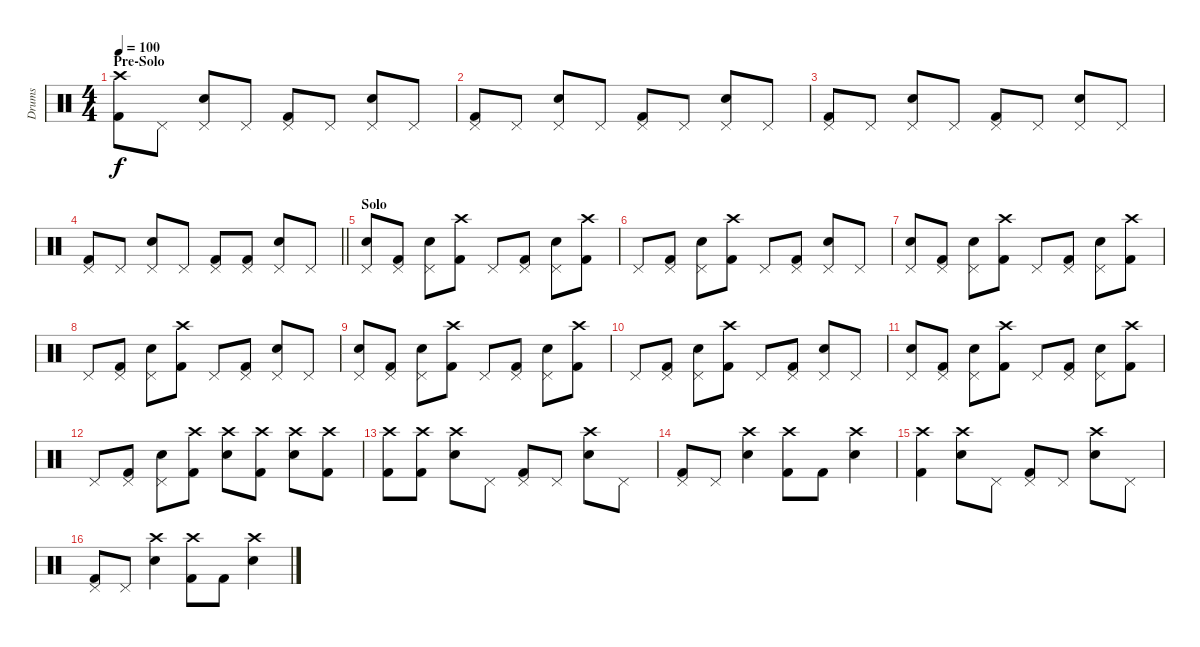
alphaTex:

\track ("Drums" "Drums") {instrument percussion}
\staff {score}
\articulation defaults
\ts (4 4)
\section ("" "Pre-Solo")
\tempo 100
\clef neutral
\ks c
("Crash high (hit)" "Kick (hit) 2").8{dy f} "Pedal Hi-Hat (hit)".8 ("Pedal Hi-Hat (hit)" "Electric Snare (hit)").8 "Pedal Hi-Hat (hit)".8 ("Pedal Hi-Hat (hit)" "Kick (hit) 2").8 "Pedal Hi-Hat (hit)".8 ("Pedal Hi-Hat (hit)" "Electric Snare (hit)").8 "Pedal Hi-Hat (hit)".8 |
("Pedal Hi-Hat (hit)" "Kick (hit) 2").8 "Pedal Hi-Hat (hit)".8 ("Pedal Hi-Hat (hit)" "Electric Snare (hit)").8 "Pedal Hi-Hat (hit)".8 ("Pedal Hi-Hat (hit)" "Kick (hit) 2").8 "Pedal Hi-Hat (hit)".8 ("Pedal Hi-Hat (hit)" "Electric Snare (hit)").8 "Pedal Hi-Hat (hit)".8 |
("Pedal Hi-Hat (hit)" "Kick (hit) 2").8 "Pedal Hi-Hat (hit)".8 ("Pedal Hi-Hat (hit)" "Electric Snare (hit)").8 "Pedal Hi-Hat (hit)".8 ("Pedal Hi-Hat (hit)" "Kick (hit) 2").8 "Pedal Hi-Hat (hit)".8 ("Pedal Hi-Hat (hit)" "Electric Snare (hit)").8 "Pedal Hi-Hat (hit)".8 |
\barLineRight lightlight
("Pedal Hi-Hat (hit)" "Kick (hit) 2").8 "Pedal Hi-Hat (hit)".8 ("Pedal Hi-Hat (hit)" "Electric Snare (hit)").8 "Pedal Hi-Hat (hit)".8 ("Pedal Hi-Hat (hit)" "Kick (hit) 2").8 ("Pedal Hi-Hat (hit)" "Kick (hit) 2").8 ("Pedal Hi-Hat (hit)" "Electric Snare (hit)").8 "Pedal Hi-Hat (hit)".8 |
\section ("" "Solo")
("Pedal Hi-Hat (hit)" "Electric Snare (hit)").8 ("Pedal Hi-Hat (hit)" "Kick (hit) 2").8 ("Pedal Hi-Hat (hit)" "Electric Snare (hit)").8 ("Crash high (hit)" "Kick (hit) 2").8 "Pedal Hi-Hat (hit)".8 ("Pedal Hi-Hat (hit)" "Kick (hit) 2").8 ("Pedal Hi-Hat (hit)" "Electric Snare (hit)").8 ("Crash high (hit)" "Kick (hit) 2").8 |
"Pedal Hi-Hat (hit)".8 ("Pedal Hi-Hat (hit)" "Kick (hit) 2").8 ("Pedal Hi-Hat (hit)" "Electric Snare (hit)").8 ("Crash high (hit)" "Kick (hit) 2").8 "Pedal Hi-Hat (hit)".8 ("Pedal Hi-Hat (hit)" "Kick (hit) 2").8 ("Pedal Hi-Hat (hit)" "Electric Snare (hit)").8 "Pedal Hi-Hat (hit)".8 |
("Pedal Hi-Hat (hit)" "Electric Snare (hit)").8 ("Pedal Hi-Hat (hit)" "Kick (hit) 2").8 ("Pedal Hi-Hat (hit)" "Electric Snare (hit)").8 ("Crash high (hit)" "Kick (hit) 2").8 "Pedal Hi-Hat (hit)".8 ("Pedal Hi-Hat (hit)" "Kick (hit) 2").8 ("Pedal Hi-Hat (hit)" "Electric Snare (hit)").8 ("Crash high (hit)" "Kick (hit) 2").8 |
"Pedal Hi-Hat (hit)".8 ("Pedal Hi-Hat (hit)" "Kick (hit) 2").8 ("Pedal Hi-Hat (hit)" "Electric Snare (hit)").8 ("Crash high (hit)" "Kick (hit) 2").8 "Pedal Hi-Hat (hit)".8 ("Pedal Hi-Hat (hit)" "Kick (hit) 2").8 ("Pedal Hi-Hat (hit)" "Electric Snare (hit)").8 "Pedal Hi-Hat (hit)".8 |
("Pedal Hi-Hat (hit)" "Electric Snare (hit)").8 ("Pedal Hi-Hat (hit)" "Kick (hit) 2").8 ("Pedal Hi-Hat (hit)" "Electric Snare (hit)").8 ("Crash high (hit)" "Kick (hit) 2").8 "Pedal Hi-Hat (hit)".8 ("Pedal Hi-Hat (hit)" "Kick (hit) 2").8 ("Pedal Hi-Hat (hit)" "Electric Snare (hit)").8 ("Crash high (hit)" "Kick (hit) 2").8 |
"Pedal Hi-Hat (hit)".8 ("Pedal Hi-Hat (hit)" "Kick (hit) 2").8 ("Pedal Hi-Hat (hit)" "Electric Snare (hit)").8 ("Crash high (hit)" "Kick (hit) 2").8 "Pedal Hi-Hat (hit)".8 ("Pedal Hi-Hat (hit)" "Kick (hit) 2").8 ("Pedal Hi-Hat (hit)" "Electric Snare (hit)").8 "Pedal Hi-Hat (hit)".8 |
("Pedal Hi-Hat (hit)" "Electric Snare (hit)").8 ("Pedal Hi-Hat (hit)" "Kick (hit) 2").8 ("Pedal Hi-Hat (hit)" "Electric Snare (hit)").8 ("Crash high (hit)" "Kick (hit) 2").8 "Pedal Hi-Hat (hit)".8 ("Pedal Hi-Hat (hit)" "Kick (hit) 2").8 ("Pedal Hi-Hat (hit)" "Electric Snare (hit)").8 ("Crash high (hit)" "Kick (hit) 2").8 |
"Pedal Hi-Hat (hit)".8 ("Pedal Hi-Hat (hit)" "Kick (hit) 2").8 ("Pedal Hi-Hat (hit)" "Electric Snare (hit)").8 ("Crash high (hit)" "Kick (hit) 2").8 ("Crash high (hit)" "Electric Snare (hit)").8 ("Crash high (hit)" "Kick (hit) 2").8 ("Crash high (hit)" "Electric Snare (hit)").8 ("Crash high (hit)" "Kick (hit) 2").8 |
("Crash high (hit)" "Kick (hit) 2").8 ("Crash high (hit)" "Kick (hit) 2").8 ("Crash high (hit)" "Electric Snare (hit)").8 "Pedal Hi-Hat (hit)".8 ("Pedal Hi-Hat (hit)" "Kick (hit) 2").8 "Pedal Hi-Hat (hit)".8 ("Crash high (hit)" "Electric Snare (hit)").8 "Pedal Hi-Hat (hit)".8 |
("Pedal Hi-Hat (hit)" "Kick (hit) 2").8 "Pedal Hi-Hat (hit)".8 ("Crash high (hit)" "Electric Snare (hit)").4 ("Crash high (hit)" "Kick (hit) 2").8 "Kick (hit) 2".8 ("Crash high (hit)" "Electric Snare (hit)").4 |
("Crash high (hit)" "Kick (hit) 2").4 ("Crash high (hit)" "Electric Snare (hit)").8 "Pedal Hi-Hat (hit)".8 ("Pedal Hi-Hat (hit)" "Kick (hit) 2").8 "Pedal Hi-Hat (hit)".8 ("Crash high (hit)" "Electric Snare (hit)").8 "Pedal Hi-Hat (hit)".8 |
("Pedal Hi-Hat (hit)" "Kick (hit) 2").8 "Pedal Hi-Hat (hit)".8 ("Crash high (hit)" "Electric Snare (hit)").4 ("Crash high (hit)" "Kick (hit) 2").8 "Kick (hit) 2".8 ("Crash high (hit)" "Electric Snare (hit)").4
